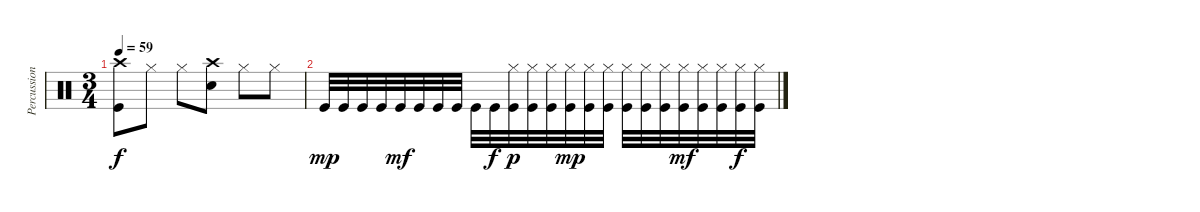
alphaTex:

\track ("Percussion" "Percussion") {instrument percussion}
\staff {score}
\articulation defaults
\ts (3 4)
\tempo 59
\clef neutral
\ks c
("Crash high (hit)" "Kick (hit)").8{dy f} "Hi-Hat (closed)".8 "Hi-Hat (closed)".8 ("Crash high (hit)" "Electric Snare (hit)").8 "Hi-Hat (closed)".8 "Hi-Hat (closed)".8 |
"Kick (hit)".32{dy mp} "Kick (hit)".32 "Kick (hit)".32 "Kick (hit)".32 "Kick (hit)".32{dy mf} "Kick (hit)".32 "Kick (hit)".32 "Kick (hit)".32 "Kick (hit)".32 "Kick (hit)".32{dy f} ("Hi-Hat (closed)" "Kick (hit)").32{dy p} ("Hi-Hat (closed)" "Kick (hit)").32 ("Hi-Hat (closed)" "Kick (hit)").32 ("Hi-Hat (closed)" "Kick (hit)").32{dy mp} ("Hi-Hat (closed)" "Kick (hit)").32 ("Hi-Hat (closed)" "Kick (hit)").32 ("Hi-Hat (closed)" "Kick (hit)").32 ("Hi-Hat (closed)" "Kick (hit)").32 ("Hi-Hat (closed)" "Kick (hit)").32 ("Hi-Hat (closed)" "Kick (hit)").32{dy mf} ("Hi-Hat (closed)" "Kick (hit)").32 ("Hi-Hat (closed)" "Kick (hit)").32 ("Hi-Hat (closed)" "Kick (hit)").32{dy f} ("Hi-Hat (closed)" "Kick (hit)").32
